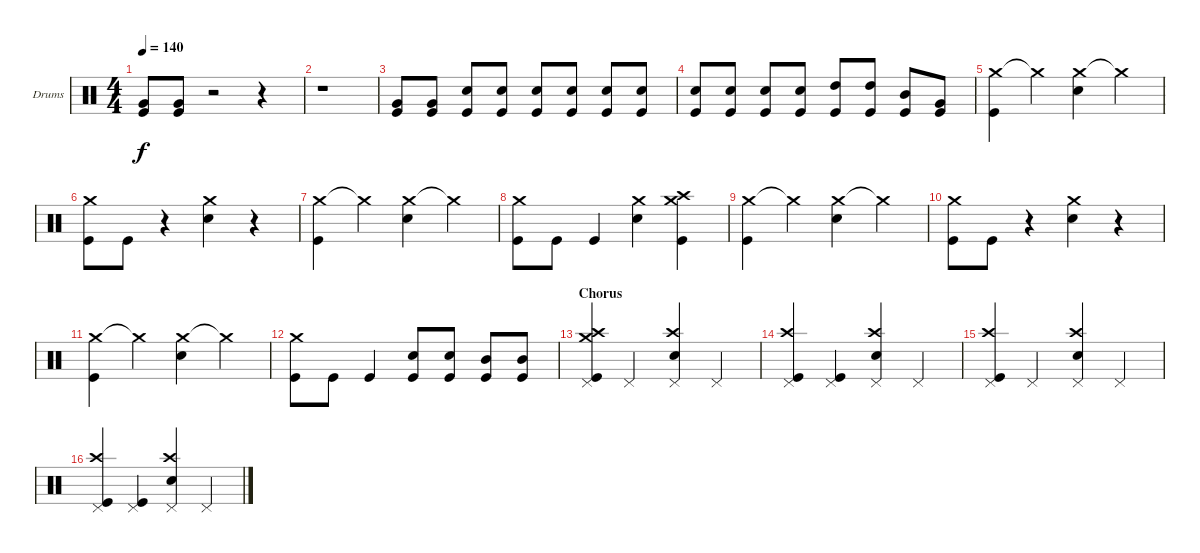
\bracketExtendMode groupsimilarinstruments
\firstSystemTrackNameOrientation horizontal
\otherSystemsTrackNameOrientation horizontal
\track ("Drumkit" "Drums") {instrument percussion}
\staff {score}
\articulation defaults
\ts (4 4)
\tempo 140
\clef neutral
\ks c
("Very Low Tom (hit)" "Kick (hit)").8{dy f} ("Very Low Tom (hit)" "Kick (hit)").8 r.2 r.4 |
r.1 |
("Very Low Tom (hit)" "Kick (hit)").8 ("Very Low Tom (hit)" "Kick (hit)").8 ("Snare (hit) 2" "Kick (hit)").8 ("Snare (hit) 2" "Kick (hit)").8 ("Snare (hit) 2" "Kick (hit)").8 ("Snare (hit) 2" "Kick (hit)").8 ("Snare (hit) 2" "Kick (hit)").8 ("Snare (hit) 2" "Kick (hit)").8 |
("Snare (hit) 2" "Kick (hit)").8 ("Snare (hit) 2" "Kick (hit)").8 ("Snare (hit) 2" "Kick (hit)").8 ("Snare (hit) 2" "Kick (hit)").8 ("High Tom (hit)" "Kick (hit)").8 ("High Tom (hit)" "Kick (hit)").8 ("Mid Tom (hit)" "Kick (hit)").8 ("Very Low Tom (hit)" "Kick (hit)").8 |
("Crash medium (hit)" "Kick (hit)").4 "Crash medium (hit)"{t}.4 ("Crash medium (hit)" "Snare (hit) 2").4 "Crash medium (hit)"{t}.4 |
("Crash medium (hit)" "Kick (hit)").8 "Kick (hit)".8 r.4 ("Crash medium (hit)" "Snare (hit) 2").4 r.4 |
("Crash medium (hit)" "Kick (hit)").4 "Crash medium (hit)"{t}.4 ("Crash medium (hit)" "Snare (hit) 2").4 "Crash medium (hit)"{t}.4 |
("Crash medium (hit)" "Kick (hit)").8 "Kick (hit)".8 "Kick (hit)".4 ("Crash medium (hit)" "Snare (hit) 2").4 ("Crash high (hit)" "Crash medium (hit)" "Kick (hit)").4 |
("Crash medium (hit)" "Kick (hit)").4 "Crash medium (hit)"{t}.4 ("Crash medium (hit)" "Snare (hit) 2").4 "Crash medium (hit)"{t}.4 |
("Crash medium (hit)" "Kick (hit)").8 "Kick (hit)".8 r.4 ("Crash medium (hit)" "Snare (hit) 2").4 r.4 |
("Crash medium (hit)" "Kick (hit)").4 "Crash medium (hit)"{t}.4 ("Crash medium (hit)" "Snare (hit) 2").4 "Crash medium (hit)"{t}.4 |
("Crash medium (hit)" "Kick (hit)").8 "Kick (hit)".8 "Kick (hit)".4 ("Snare (hit) 2" "Kick (hit)").8 ("Snare (hit) 2" "Kick (hit)").8 ("Mid Tom (hit)" "Kick (hit)").8 ("Mid Tom (hit)" "Kick (hit)").8 |
\section ("" "Chorus")
("Crash medium (hit)" "Pedal Hi-Hat (hit)" "Crash high (hit)" "Kick (hit)").4 "Pedal Hi-Hat (hit)".4 ("Crash high (hit)" "Pedal Hi-Hat (hit)" "Snare (hit) 2").4 "Pedal Hi-Hat (hit)".4 |
("Crash high (hit)" "Pedal Hi-Hat (hit)" "Kick (hit)").4 ("Pedal Hi-Hat (hit)" "Kick (hit)").4 ("Crash high (hit)" "Pedal Hi-Hat (hit)" "Snare (hit) 2").4 "Pedal Hi-Hat (hit)".4 |
("Crash high (hit)" "Pedal Hi-Hat (hit)" "Kick (hit)").4 "Pedal Hi-Hat (hit)".4 ("Crash high (hit)" "Pedal Hi-Hat (hit)" "Snare (hit) 2").4 "Pedal Hi-Hat (hit)".4 |
("Crash high (hit)" "Pedal Hi-Hat (hit)" "Kick (hit)").4 ("Pedal Hi-Hat (hit)" "Kick (hit)").4 ("Crash high (hit)" "Pedal Hi-Hat (hit)" "Snare (hit) 2").4 "Pedal Hi-Hat (hit)".4
